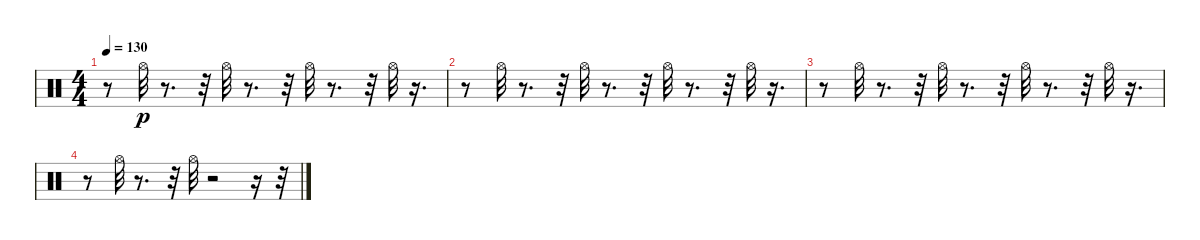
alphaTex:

\track "" {instrument percussion}
\staff {score}
\articulation defaults
\ts (4 4)
\tempo 130
\clef neutral
\ks c
r.8{dy p} "Hi-Hat (open)".32 r.8{d} r.32 "Hi-Hat (open)".32 r.8{d} r.32 "Hi-Hat (open)".32 r.8{d} r.32 "Hi-Hat (open)".32 r.16{d} |
r.8 "Hi-Hat (open)".32 r.8{d} r.32 "Hi-Hat (open)".32 r.8{d} r.32 "Hi-Hat (open)".32 r.8{d} r.32 "Hi-Hat (open)".32 r.16{d} |
r.8 "Hi-Hat (open)".32 r.8{d} r.32 "Hi-Hat (open)".32 r.8{d} r.32 "Hi-Hat (open)".32 r.8{d} r.32 "Hi-Hat (open)".32 r.16{d} |
r.8 "Hi-Hat (open)".32 r.8{d} r.32 "Hi-Hat (open)".32 r.2 r.16 r.32
